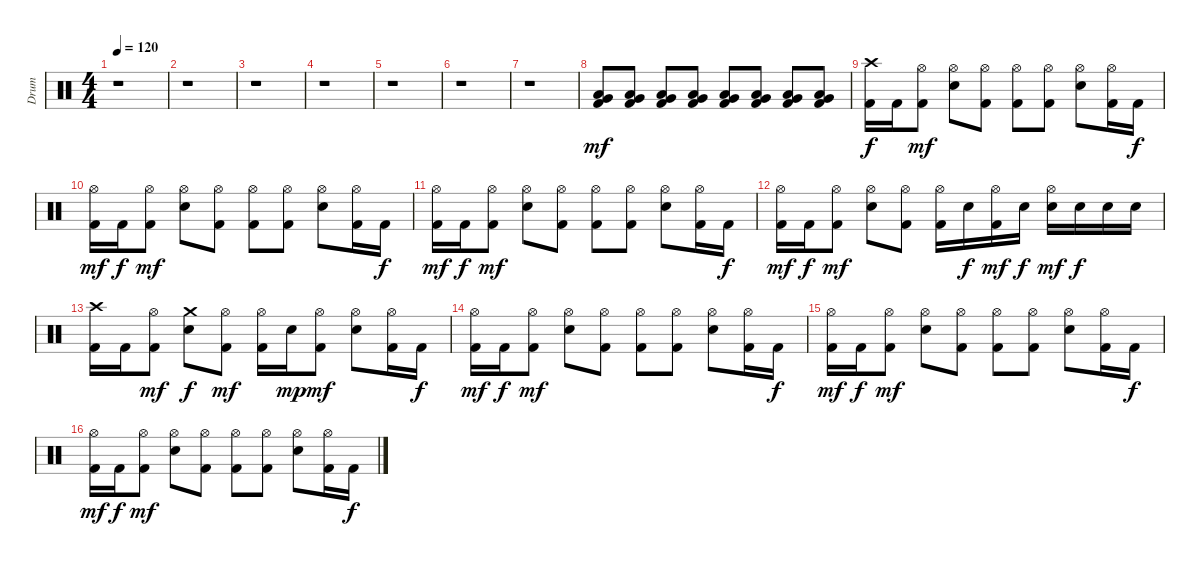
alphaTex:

\track ("Drum" "Drum") {instrument percussion}
\staff {score}
\articulation defaults
\ts (4 4)
\tempo 120
\clef neutral
\ks c
r.1{dy mf} |
r.1 |
r.1 |
r.1 |
r.1 |
r.1 |
r.1 |
("Low Tom (hit)" "Very Low Tom (hit)" "Kick (hit) 2").8 ("Low Tom (hit)" "Very Low Tom (hit)" "Kick (hit) 2").8 ("Low Tom (hit)" "Very Low Tom (hit)" "Kick (hit) 2").8 ("Low Tom (hit)" "Very Low Tom (hit)" "Kick (hit) 2").8 ("Low Tom (hit)" "Very Low Tom (hit)" "Kick (hit) 2").8 ("Low Tom (hit)" "Very Low Tom (hit)" "Kick (hit) 2").8 ("Low Tom (hit)" "Very Low Tom (hit)" "Kick (hit) 2").8 ("Low Tom (hit)" "Very Low Tom (hit)" "Kick (hit) 2").8 |
("Crash high (hit)" "Kick (hit) 2").16{dy f} "Kick (hit) 2".16 ("Hi-Hat (open)" "Kick (hit) 2").8{dy mf} ("Hi-Hat (open)" "Electric Snare (hit)").8 ("Hi-Hat (open)" "Kick (hit) 2").8 ("Hi-Hat (open)" "Kick (hit) 2").8 ("Hi-Hat (open)" "Kick (hit) 2").8 ("Hi-Hat (open)" "Electric Snare (hit)").8 ("Hi-Hat (open)" "Kick (hit) 2").16 "Kick (hit) 2".16{dy f} |
("Hi-Hat (open)" "Kick (hit) 2").16{dy mf} "Kick (hit) 2".16{dy f} ("Hi-Hat (open)" "Kick (hit) 2").8{dy mf} ("Hi-Hat (open)" "Electric Snare (hit)").8 ("Hi-Hat (open)" "Kick (hit) 2").8 ("Hi-Hat (open)" "Kick (hit) 2").8 ("Hi-Hat (open)" "Kick (hit) 2").8 ("Hi-Hat (open)" "Electric Snare (hit)").8 ("Hi-Hat (open)" "Kick (hit) 2").16 "Kick (hit) 2".16{dy f} |
("Hi-Hat (open)" "Kick (hit) 2").16{dy mf} "Kick (hit) 2".16{dy f} ("Hi-Hat (open)" "Kick (hit) 2").8{dy mf} ("Hi-Hat (open)" "Electric Snare (hit)").8 ("Hi-Hat (open)" "Kick (hit) 2").8 ("Hi-Hat (open)" "Kick (hit) 2").8 ("Hi-Hat (open)" "Kick (hit) 2").8 ("Hi-Hat (open)" "Electric Snare (hit)").8 ("Hi-Hat (open)" "Kick (hit) 2").16 "Kick (hit) 2".16{dy f} |
("Hi-Hat (open)" "Kick (hit) 2").16{dy mf} "Kick (hit) 2".16{dy f} ("Hi-Hat (open)" "Kick (hit) 2").8{dy mf} ("Hi-Hat (open)" "Electric Snare (hit)").8 ("Hi-Hat (open)" "Kick (hit) 2").8 ("Hi-Hat (open)" "Kick (hit) 2").16 "Electric Snare (hit)".16{dy f} ("Hi-Hat (open)" "Kick (hit) 2").16{dy mf} "Electric Snare (hit)".16{dy f} ("Hi-Hat (open)" "Electric Snare (hit)").16{dy mf} "Electric Snare (hit)".16{dy f} "Electric Snare (hit)".16 "Electric Snare (hit)".16 |
("Crash high (hit)" "Kick (hit) 2").16 "Kick (hit) 2".16 ("Hi-Hat (open)" "Kick (hit) 2").8{dy mf} ("Crash medium (hit)" "Electric Snare (hit)").8{dy f} ("Hi-Hat (open)" "Kick (hit) 2").8{dy mf} ("Hi-Hat (open)" "Kick (hit) 2").16 "Electric Snare (hit)".16{dy mp} ("Hi-Hat (open)" "Kick (hit) 2").8{dy mf} ("Hi-Hat (open)" "Electric Snare (hit)").8 ("Hi-Hat (open)" "Kick (hit) 2").16 "Kick (hit) 2".16{dy f} |
("Hi-Hat (open)" "Kick (hit) 2").16{dy mf} "Kick (hit) 2".16{dy f} ("Hi-Hat (open)" "Kick (hit) 2").8{dy mf} ("Hi-Hat (open)" "Electric Snare (hit)").8 ("Hi-Hat (open)" "Kick (hit) 2").8 ("Hi-Hat (open)" "Kick (hit) 2").8 ("Hi-Hat (open)" "Kick (hit) 2").8 ("Hi-Hat (open)" "Electric Snare (hit)").8 ("Hi-Hat (open)" "Kick (hit) 2").16 "Kick (hit) 2".16{dy f} |
("Hi-Hat (open)" "Kick (hit) 2").16{dy mf} "Kick (hit) 2".16{dy f} ("Hi-Hat (open)" "Kick (hit) 2").8{dy mf} ("Hi-Hat (open)" "Electric Snare (hit)").8 ("Hi-Hat (open)" "Kick (hit) 2").8 ("Hi-Hat (open)" "Kick (hit) 2").8 ("Hi-Hat (open)" "Kick (hit) 2").8 ("Hi-Hat (open)" "Electric Snare (hit)").8 ("Hi-Hat (open)" "Kick (hit) 2").16 "Kick (hit) 2".16{dy f} |
("Hi-Hat (open)" "Kick (hit) 2").16{dy mf} "Kick (hit) 2".16{dy f} ("Hi-Hat (open)" "Kick (hit) 2").8{dy mf} ("Hi-Hat (open)" "Electric Snare (hit)").8 ("Hi-Hat (open)" "Kick (hit) 2").8 ("Hi-Hat (open)" "Kick (hit) 2").8 ("Hi-Hat (open)" "Kick (hit) 2").8 ("Hi-Hat (open)" "Electric Snare (hit)").8 ("Hi-Hat (open)" "Kick (hit) 2").16 "Kick (hit) 2".16{dy f}
